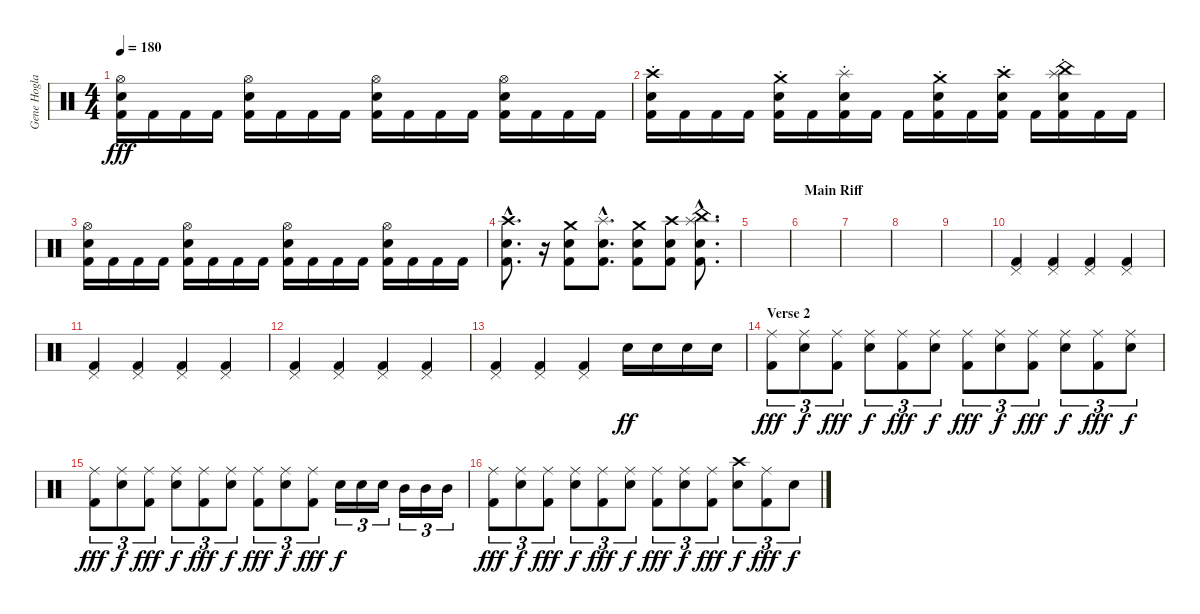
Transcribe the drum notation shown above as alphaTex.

\track ("Gene Hoglan" "Gene Hogla") {instrument percussion}
\staff {score}
\articulation defaults
\ts (4 4)
\tempo 180
\clef neutral
\ks c
("Hi-Hat (open)" "Snare (hit) 2" "Kick (hit) 2").16{dy fff} "Kick (hit) 2".16 "Kick (hit) 2".16 "Kick (hit) 2".16 ("Hi-Hat (open)" "Snare (hit) 2" "Kick (hit) 2").16 "Kick (hit) 2".16 "Kick (hit) 2".16 "Kick (hit) 2".16 ("Hi-Hat (open)" "Snare (hit) 2" "Kick (hit) 2").16 "Kick (hit) 2".16 "Kick (hit) 2".16 "Kick (hit) 2".16 ("Hi-Hat (open)" "Snare (hit) 2" "Kick (hit) 2").16 "Kick (hit) 2".16 "Kick (hit) 2".16 "Kick (hit) 2".16 |
("Crash high (hit)"{st} "Snare (hit) 2" "Kick (hit) 2").16 "Kick (hit) 2".16 "Kick (hit) 2".16 "Kick (hit) 2".16 ("Crash medium (hit)"{st} "Snare (hit) 2" "Kick (hit) 2").16 "Kick (hit) 2".16 ("Splash (hit)"{st} "Snare (hit) 2" "Kick (hit) 2").16 "Kick (hit) 2".16 "Kick (hit) 2".16 ("Crash medium (hit)"{st} "Snare (hit) 2" "Kick (hit) 2").16 "Kick (hit) 2".16 ("Crash high (hit)"{st} "Snare (hit) 2" "Kick (hit) 2").16 "Kick (hit) 2".16 ("China (hit)"{st} "Splash (hit)"{st} "Snare (hit) 2" "Kick (hit) 2").16 "Kick (hit) 2".16 "Kick (hit) 2".16 |
("Hi-Hat (open)" "Snare (hit) 2" "Kick (hit) 2").16 "Kick (hit) 2".16 "Kick (hit) 2".16 "Kick (hit) 2".16 ("Hi-Hat (open)" "Snare (hit) 2" "Kick (hit) 2").16 "Kick (hit) 2".16 "Kick (hit) 2".16 "Kick (hit) 2".16 ("Hi-Hat (open)" "Snare (hit) 2" "Kick (hit) 2").16 "Kick (hit) 2".16 "Kick (hit) 2".16 "Kick (hit) 2".16 ("Hi-Hat (open)" "Snare (hit) 2" "Kick (hit) 2").16 "Kick (hit) 2".16 "Kick (hit) 2".16 "Kick (hit) 2".16 |
("Crash high (hit)"{hac} "Snare (hit) 2"{hac} "Kick (hit) 2"{hac}).8{d} r.16 ("Crash medium (hit)" "Snare (hit) 2" "Kick (hit) 2").8 ("Splash (hit)"{hac} "Snare (hit) 2"{hac} "Kick (hit) 2"{hac}).8{d} ("Crash medium (hit)" "Snare (hit) 2" "Kick (hit) 2").8 ("Crash high (hit)" "Snare (hit) 2" "Kick (hit) 2").8 ("China (hit)"{hac} "Splash (hit)"{hac} "Snare (hit) 2"{hac} "Kick (hit) 2"{hac}).8{d} |
|
\section ("" "Main Riff")
|
|
|
|
("Pedal Hi-Hat (hit)" "Kick (hit) 2").4 ("Pedal Hi-Hat (hit)" "Kick (hit) 2").4 ("Pedal Hi-Hat (hit)" "Kick (hit) 2").4 ("Pedal Hi-Hat (hit)" "Kick (hit) 2").4 |
("Pedal Hi-Hat (hit)" "Kick (hit) 2").4 ("Pedal Hi-Hat (hit)" "Kick (hit) 2").4 ("Pedal Hi-Hat (hit)" "Kick (hit) 2").4 ("Pedal Hi-Hat (hit)" "Kick (hit) 2").4 |
("Pedal Hi-Hat (hit)" "Kick (hit) 2").4 ("Pedal Hi-Hat (hit)" "Kick (hit) 2").4 ("Pedal Hi-Hat (hit)" "Kick (hit) 2").4 ("Pedal Hi-Hat (hit)" "Kick (hit) 2").4 |
("Pedal Hi-Hat (hit)" "Kick (hit) 2").4 ("Pedal Hi-Hat (hit)" "Kick (hit) 2").4 ("Pedal Hi-Hat (hit)" "Kick (hit) 2").4 "Snare (hit) 2".16{dy ff} "Snare (hit) 2".16 "Snare (hit) 2".16 "Snare (hit) 2".16 |
\section ("" "Verse 2")
("Ride (middle)" "Kick (hit) 2").8{tu (3 2) dy fff} ("Snare (hit) 2" "Ride (middle)").8{tu (3 2) dy f} ("Ride (middle)" "Kick (hit) 2").8{tu (3 2) dy fff} ("Snare (hit) 2" "Ride (middle)").8{tu (3 2) dy f} ("Ride (middle)" "Kick (hit) 2").8{tu (3 2) dy fff} ("Snare (hit) 2" "Ride (middle)").8{tu (3 2) dy f} ("Ride (middle)" "Kick (hit) 2").8{tu (3 2) dy fff} ("Snare (hit) 2" "Ride (middle)").8{tu (3 2) dy f} ("Ride (middle)" "Kick (hit) 2").8{tu (3 2) dy fff} ("Snare (hit) 2" "Ride (middle)").8{tu (3 2) dy f} ("Ride (middle)" "Kick (hit) 2").8{tu (3 2) dy fff} ("Snare (hit) 2" "Ride (middle)").8{tu (3 2) dy f} |
("Ride (middle)" "Kick (hit) 2").8{tu (3 2) dy fff} ("Snare (hit) 2" "Ride (middle)").8{tu (3 2) dy f} ("Ride (middle)" "Kick (hit) 2").8{tu (3 2) dy fff} ("Snare (hit) 2" "Ride (middle)").8{tu (3 2) dy f} ("Ride (middle)" "Kick (hit) 2").8{tu (3 2) dy fff} ("Snare (hit) 2" "Ride (middle)").8{tu (3 2) dy f} ("Ride (middle)" "Kick (hit) 2").8{tu (3 2) dy fff} ("Snare (hit) 2" "Ride (middle)").8{tu (3 2) dy f} ("Ride (middle)" "Kick (hit) 2").8{tu (3 2) dy fff} "Snare (hit) 2".16{tu (3 2) dy f} "Snare (hit) 2".16{tu (3 2)} "Snare (hit) 2".16{tu (3 2)} "Mid Tom (hit)".16{tu (3 2)} "Mid Tom (hit)".16{tu (3 2)} "Mid Tom (hit)".16{tu (3 2)} |
("Ride (middle)" "Kick (hit) 2").8{tu (3 2) dy fff} ("Snare (hit) 2" "Ride (middle)").8{tu (3 2) dy f} ("Ride (middle)" "Kick (hit) 2").8{tu (3 2) dy fff} ("Snare (hit) 2" "Ride (middle)").8{tu (3 2) dy f} ("Ride (middle)" "Kick (hit) 2").8{tu (3 2) dy fff} ("Snare (hit) 2" "Ride (middle)").8{tu (3 2) dy f} ("Ride (middle)" "Kick (hit) 2").8{tu (3 2) dy fff} ("Snare (hit) 2" "Ride (middle)").8{tu (3 2) dy f} ("Ride (middle)" "Kick (hit) 2").8{tu (3 2) dy fff} ("Crash high (hit)" "Snare (hit) 2").8{tu (3 2) dy f} ("Ride (middle)" "Kick (hit) 2").8{tu (3 2) dy fff} "Snare (hit) 2".8{tu (3 2) dy f}
